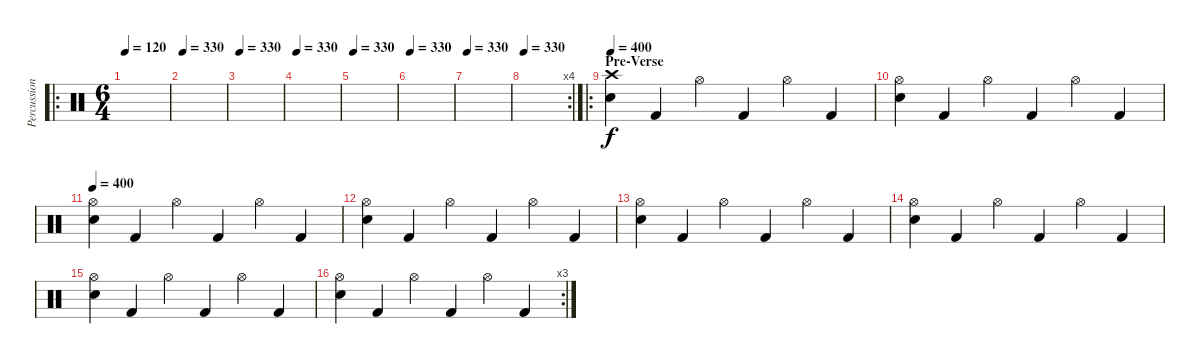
\track ("Percussion" "Percussion") {instrument percussion}
\staff {score}
\articulation defaults
\ro
\ts (6 4)
\tempo 120
\tempo 330
\tempo 120
\clef neutral
\ks c
|
\tempo 330
|
\tempo 330
|
\tempo 330
|
\tempo 330
|
\tempo 330
|
\tempo 330
|
\rc 4
\tempo 330
|
\ro
\section ("" "Pre-Verse")
\tempo 400
("Crash high (hit)" "Snare (hit) 2").4 "Kick (hit) 2".4 "Hi-Hat (open)".4 "Kick (hit) 2".4 "Hi-Hat (open)".4 "Kick (hit) 2".4 |
("Hi-Hat (open)" "Snare (hit) 2").4 "Kick (hit) 2".4 "Hi-Hat (open)".4 "Kick (hit) 2".4 "Hi-Hat (open)".4 "Kick (hit) 2".4 |
\tempo 400
("Hi-Hat (open)" "Snare (hit) 2").4 "Kick (hit) 2".4 "Hi-Hat (open)".4 "Kick (hit) 2".4 "Hi-Hat (open)".4 "Kick (hit) 2".4 |
("Hi-Hat (open)" "Snare (hit) 2").4 "Kick (hit) 2".4 "Hi-Hat (open)".4 "Kick (hit) 2".4 "Hi-Hat (open)".4 "Kick (hit) 2".4 |
("Hi-Hat (open)" "Snare (hit) 2").4 "Kick (hit) 2".4 "Hi-Hat (open)".4 "Kick (hit) 2".4 "Hi-Hat (open)".4 "Kick (hit) 2".4 |
("Hi-Hat (open)" "Snare (hit) 2").4 "Kick (hit) 2".4 "Hi-Hat (open)".4 "Kick (hit) 2".4 "Hi-Hat (open)".4 "Kick (hit) 2".4 |
("Hi-Hat (open)" "Snare (hit) 2").4 "Kick (hit) 2".4 "Hi-Hat (open)".4 "Kick (hit) 2".4 "Hi-Hat (open)".4 "Kick (hit) 2".4 |
\rc 3
("Hi-Hat (open)" "Snare (hit) 2").4 "Kick (hit) 2".4 "Hi-Hat (open)".4 "Kick (hit) 2".4 "Hi-Hat (open)".4 "Kick (hit) 2".4
